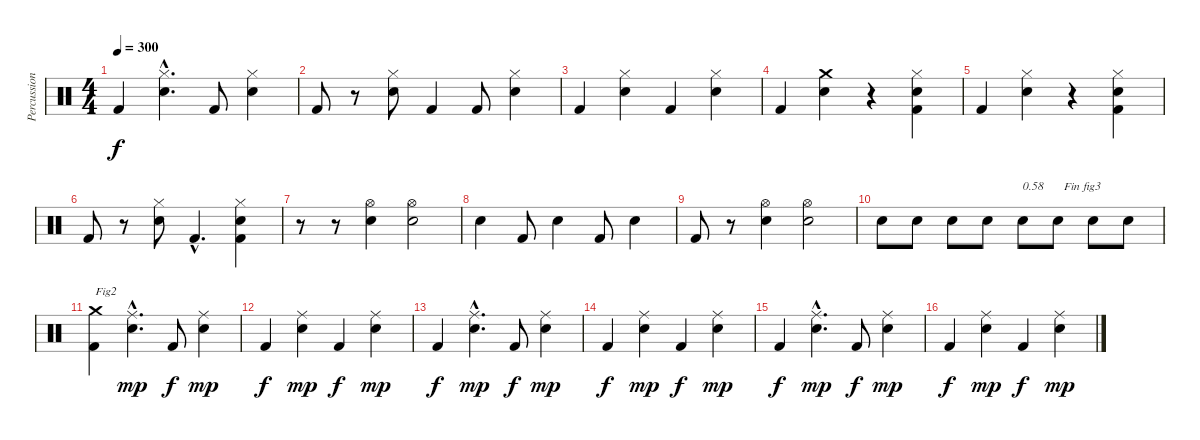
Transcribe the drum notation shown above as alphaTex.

\track ("Percussions" "Percussion") {instrument percussion}
\staff {score}
\articulation defaults
\ts (4 4)
\tempo 300
\clef neutral
\ks c "Kick (hit) 2".4{dy f}
("Electric Snare (hit)"{hac} "Hi-Hat (closed)"{hac}).4{d} "Kick (hit) 2".8 ("Electric Snare (hit)" "Hi-Hat (closed)").4 |
"Kick (hit) 2".8 r.8 ("Electric Snare (hit)" "Hi-Hat (closed)").8 "Kick (hit) 2".4 "Kick (hit) 2".8 ("Electric Snare (hit)" "Hi-Hat (closed)").4 |
"Kick (hit) 2".4 ("Electric Snare (hit)" "Hi-Hat (closed)").4 "Kick (hit) 2".4 ("Electric Snare (hit)" "Hi-Hat (closed)").4 |
"Kick (hit) 2".4 ("Electric Snare (hit)" "Crash medium (hit)").4 r.4 ("Kick (hit) 2" "Electric Snare (hit)" "Hi-Hat (closed)").4 |
"Kick (hit) 2".4 ("Electric Snare (hit)" "Hi-Hat (closed)").4 r.4 ("Kick (hit) 2" "Electric Snare (hit)" "Hi-Hat (closed)").4 |
"Kick (hit) 2".8 r.8 ("Electric Snare (hit)" "Hi-Hat (closed)").8 "Kick (hit) 2"{hac}.4{d} ("Kick (hit) 2" "Electric Snare (hit)" "Hi-Hat (closed)").4 |
r.8 r.8 ("Electric Snare (hit)" "Hi-Hat (open)").4 ("Electric Snare (hit)" "Hi-Hat (open)").2 |
"Electric Snare (hit)".4 "Kick (hit) 2".8 "Electric Snare (hit)".4 "Kick (hit) 2".8 "Electric Snare (hit)".4 |
"Kick (hit) 2".8 r.8 ("Electric Snare (hit)" "Hi-Hat (open)").4 ("Electric Snare (hit)" "Hi-Hat (open)").2 |
"Electric Snare (hit)".8 "Electric Snare (hit)".8 "Electric Snare (hit)".8 "Electric Snare (hit)".8 "Electric Snare (hit)".8{txt "0.58"} "Electric Snare (hit)".8{txt "  Fin fig3"} "Electric Snare (hit)".8 "Electric Snare (hit)".8 |
("Kick (hit) 2" "Crash medium (hit)").4{txt "Fig2"} ("Electric Snare (hit)"{hac} "Ride (middle)"{hac}).4{d dy mp} "Kick (hit) 2".8{dy f} ("Electric Snare (hit)" "Ride (middle)").4{dy mp} |
"Kick (hit) 2".4{dy f} ("Electric Snare (hit)" "Ride (middle)").4{dy mp} "Kick (hit) 2".4{dy f} ("Electric Snare (hit)" "Ride (middle)").4{dy mp} |
"Kick (hit) 2".4{dy f} ("Electric Snare (hit)"{hac} "Ride (middle)"{hac}).4{d dy mp} "Kick (hit) 2".8{dy f} ("Electric Snare (hit)" "Ride (middle)").4{dy mp} |
"Kick (hit) 2".4{dy f} ("Electric Snare (hit)" "Ride (middle)").4{dy mp} "Kick (hit) 2".4{dy f} ("Electric Snare (hit)" "Ride (middle)").4{dy mp} |
"Kick (hit) 2".4{dy f} ("Electric Snare (hit)"{hac} "Ride (middle)"{hac}).4{d dy mp} "Kick (hit) 2".8{dy f} ("Electric Snare (hit)" "Ride (middle)").4{dy mp} |
"Kick (hit) 2".4{dy f} ("Electric Snare (hit)" "Ride (middle)").4{dy mp} "Kick (hit) 2".4{dy f} ("Electric Snare (hit)" "Ride (middle)").4{dy mp}
